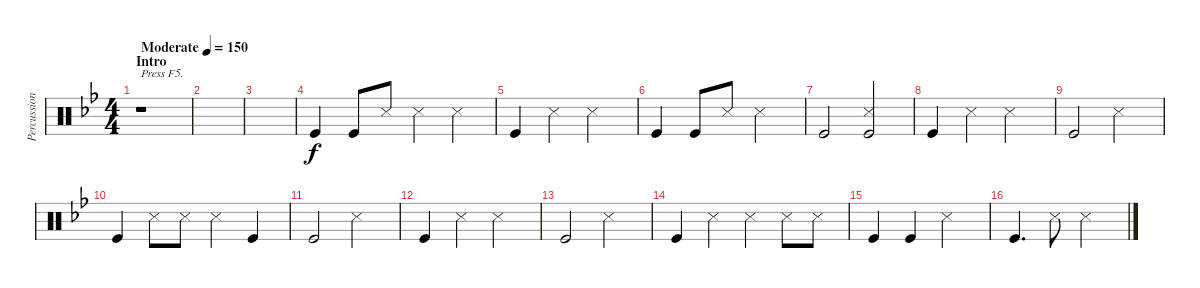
\track ("Percussion" "Percussion") {instrument percussion}
\staff {score}
\articulation defaults
\ts (4 4)
\section ("" "Intro")
\tempo (150 "Moderate")
\clef neutral
\ks gminor
r.1{txt "Press F5." dy f} |
|
|
"Kick (hit)".4 "Kick (hit)".8 "Snare (side stick) 3".8 "Snare (side stick) 3".4 "Snare (side stick) 3".4 |
"Kick (hit)".4 "Snare (side stick) 3".4 "Snare (side stick) 3".2 |
"Kick (hit)".4 "Kick (hit)".8 "Snare (side stick) 3".8 "Snare (side stick) 3".2 |
"Kick (hit)".2 ("Snare (side stick) 3" "Kick (hit)").2 |
"Kick (hit)".4 "Snare (side stick) 3".4 "Snare (side stick) 3".2 |
"Kick (hit)".2 "Snare (side stick) 3".2 |
"Kick (hit)".4 "Snare (side stick) 3".8 "Snare (side stick) 3".8 "Snare (side stick) 3".4 "Kick (hit)".4 |
"Kick (hit)".2 "Snare (side stick) 3".2 |
"Kick (hit)".4 "Snare (side stick) 3".4 "Snare (side stick) 3".2 |
"Kick (hit)".2 "Snare (side stick) 3".2 |
"Kick (hit)".4 "Snare (side stick) 3".4 "Snare (side stick) 3".4 "Snare (side stick) 3".8 "Snare (side stick) 3".8 |
"Kick (hit)".4 "Kick (hit)".4 "Snare (side stick) 3".2 |
"Kick (hit)".4{d} "Snare (side stick) 3".8 "Snare (side stick) 3".2
